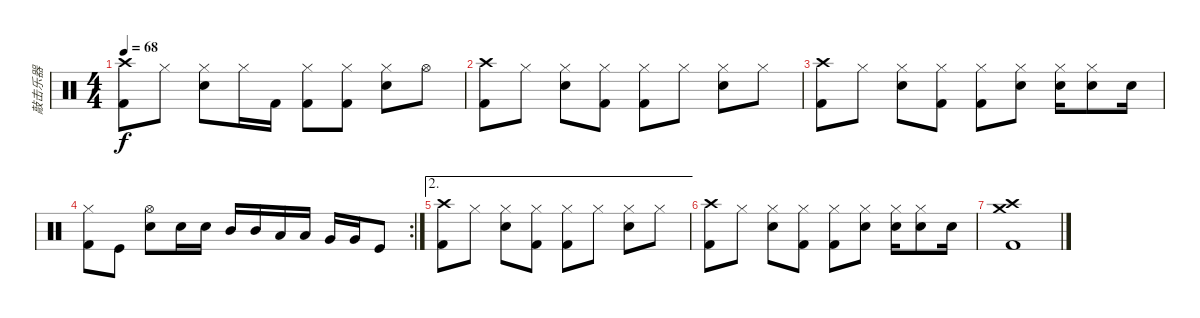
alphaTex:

\track ("敲击乐器" "敲击乐器") {instrument percussion}
\staff {score}
\articulation defaults
\ts (4 4)
\tempo 68
\clef neutral
\ks c
("Crash high (hit)" "Kick (hit) 2").8{dy f} "Hi-Hat (closed)".8 ("Hi-Hat (closed)" "Snare (hit) 2").8 "Hi-Hat (closed)".16 "Kick (hit) 2".16 ("Hi-Hat (closed)" "Kick (hit) 2").8 ("Hi-Hat (closed)" "Kick (hit) 2").8 ("Hi-Hat (closed)" "Snare (hit) 2").8 "Hi-Hat (open)".8 |
("Crash high (hit)" "Kick (hit) 2").8 "Hi-Hat (closed)".8 ("Hi-Hat (closed)" "Snare (hit) 2").8 ("Hi-Hat (closed)" "Kick (hit) 2").8 ("Hi-Hat (closed)" "Kick (hit) 2").8 "Hi-Hat (closed)".8 ("Hi-Hat (closed)" "Snare (hit) 2").8 "Hi-Hat (closed)".8 |
("Crash high (hit)" "Kick (hit) 2").8 "Hi-Hat (closed)".8 ("Hi-Hat (closed)" "Snare (hit) 2").8 ("Hi-Hat (closed)" "Kick (hit) 2").8 ("Hi-Hat (closed)" "Kick (hit) 2").8 ("Hi-Hat (closed)" "Snare (hit) 2").8 ("Hi-Hat (closed)" "Snare (hit) 2").16 ("Hi-Hat (closed)" "Snare (hit) 2").8 "Snare (hit) 2".16 |
\rc 2
("Hi-Hat (closed)" "Kick (hit) 2").8 "Kick (hit)".8 ("Electric Snare (hit)" "Hi-Hat (open)").8 "Electric Snare (hit)".16 "Electric Snare (hit)".16 "Mid Tom (hit)".16 "Mid Tom (hit)".16 "Low Tom (hit)".16 "Low Tom (hit)".16 "Very Low Tom (hit)".16 "Very Low Tom (hit)".16 "Kick (hit)".8 |
\ae 2
("Crash high (hit)" "Kick (hit) 2").8 "Hi-Hat (closed)".8 ("Hi-Hat (closed)" "Snare (hit) 2").8 ("Hi-Hat (closed)" "Kick (hit) 2").8 ("Hi-Hat (closed)" "Kick (hit) 2").8 "Hi-Hat (closed)".8 ("Hi-Hat (closed)" "Snare (hit) 2").8 "Hi-Hat (closed)".8 |
("Crash high (hit)" "Kick (hit) 2").8 "Hi-Hat (closed)".8 ("Hi-Hat (closed)" "Snare (hit) 2").8 ("Hi-Hat (closed)" "Kick (hit) 2").8 ("Hi-Hat (closed)" "Kick (hit) 2").8 ("Hi-Hat (closed)" "Snare (hit) 2").8 ("Hi-Hat (closed)" "Snare (hit) 2").16 ("Hi-Hat (closed)" "Snare (hit) 2").8 "Snare (hit) 2".16 |
("Crash high (hit)" "Crash medium (hit)" "Kick (hit) 2").1
